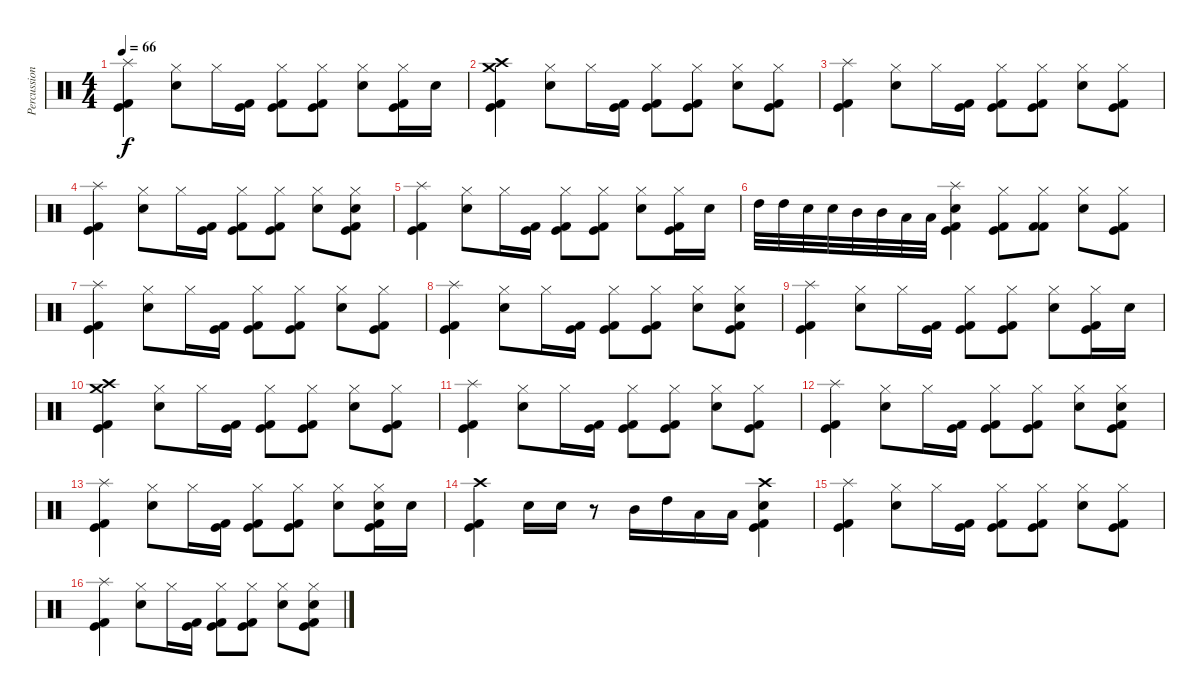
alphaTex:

\track ("Percussion" "Percussion") {instrument percussion}
\staff {score}
\articulation defaults
\ts (4 4)
\tempo 66
\clef neutral
\ks c
("Splash (hit)" "Kick (hit) 2" "Kick (hit)").4{dy f} ("Hi-Hat (closed)" "Electric Snare (hit)").8 "Hi-Hat (closed)".16 ("Kick (hit) 2" "Kick (hit)").16 ("Hi-Hat (closed)" "Kick (hit) 2" "Kick (hit)").8 ("Hi-Hat (closed)" "Kick (hit)" "Kick (hit) 2").8 ("Hi-Hat (closed)" "Electric Snare (hit)").8 ("Hi-Hat (closed)" "Kick (hit) 2" "Kick (hit)").16 "Electric Snare (hit)".16 |
("Crash medium (hit)" "Crash high (hit)" "Kick (hit) 2" "Kick (hit)").4 ("Hi-Hat (closed)" "Electric Snare (hit)").8 "Hi-Hat (closed)".16 ("Kick (hit) 2" "Kick (hit)").16 ("Hi-Hat (closed)" "Kick (hit) 2" "Kick (hit)").8 ("Hi-Hat (closed)" "Kick (hit)" "Kick (hit) 2").8 ("Hi-Hat (closed)" "Electric Snare (hit)").8 ("Hi-Hat (closed)" "Kick (hit) 2" "Kick (hit)").8 |
("Splash (hit)" "Kick (hit) 2" "Kick (hit)").4 ("Hi-Hat (closed)" "Electric Snare (hit)").8 "Hi-Hat (closed)".16 ("Kick (hit) 2" "Kick (hit)").16 ("Hi-Hat (closed)" "Kick (hit) 2" "Kick (hit)").8 ("Hi-Hat (closed)" "Kick (hit)" "Kick (hit) 2").8 ("Hi-Hat (closed)" "Electric Snare (hit)").8 ("Hi-Hat (closed)" "Kick (hit) 2" "Kick (hit)").8 |
("Splash (hit)" "Kick (hit) 2" "Kick (hit)").4 ("Hi-Hat (closed)" "Electric Snare (hit)").8 "Hi-Hat (closed)".16 ("Kick (hit) 2" "Kick (hit)").16 ("Hi-Hat (closed)" "Kick (hit) 2" "Kick (hit)").8 ("Hi-Hat (closed)" "Kick (hit)" "Kick (hit) 2").8 ("Hi-Hat (closed)" "Electric Snare (hit)").8 ("Hi-Hat (closed)" "Electric Snare (hit)" "Kick (hit) 2" "Kick (hit)").8 |
("Splash (hit)" "Kick (hit) 2" "Kick (hit)").4 ("Hi-Hat (closed)" "Electric Snare (hit)").8 "Hi-Hat (closed)".16 ("Kick (hit) 2" "Kick (hit)").16 ("Hi-Hat (closed)" "Kick (hit) 2" "Kick (hit)").8 ("Hi-Hat (closed)" "Kick (hit)" "Kick (hit) 2").8 ("Hi-Hat (closed)" "Electric Snare (hit)").8 ("Hi-Hat (closed)" "Kick (hit) 2" "Kick (hit)").16 "Electric Snare (hit)".16 |
"High Tom (hit)".32 "High Tom (hit)".32 "Electric Snare (hit)".32 "Electric Snare (hit)".32 "Mid Tom (hit)".32 "Mid Tom (hit)".32 "Low Floor Tom (hit)".32 "Low Floor Tom (hit)".32 ("Splash (hit)" "Electric Snare (hit)" "Kick (hit) 2" "Kick (hit)").4 ("Hi-Hat (closed)" "Kick (hit) 2" "Kick (hit)").8 ("Hi-Hat (closed)" "Kick (hit) 2" "Kick (hit) 2").8 ("Hi-Hat (closed)" "Electric Snare (hit)").8 ("Hi-Hat (closed)" "Kick (hit) 2" "Kick (hit)").8 |
("Splash (hit)" "Kick (hit) 2" "Kick (hit)").4 ("Hi-Hat (closed)" "Electric Snare (hit)").8 "Hi-Hat (closed)".16 ("Kick (hit) 2" "Kick (hit)").16 ("Hi-Hat (closed)" "Kick (hit) 2" "Kick (hit)").8 ("Hi-Hat (closed)" "Kick (hit)" "Kick (hit) 2").8 ("Hi-Hat (closed)" "Electric Snare (hit)").8 ("Hi-Hat (closed)" "Kick (hit) 2" "Kick (hit)").8 |
("Splash (hit)" "Kick (hit) 2" "Kick (hit)").4 ("Hi-Hat (closed)" "Electric Snare (hit)").8 "Hi-Hat (closed)".16 ("Kick (hit) 2" "Kick (hit)").16 ("Hi-Hat (closed)" "Kick (hit) 2" "Kick (hit)").8 ("Hi-Hat (closed)" "Kick (hit)" "Kick (hit) 2").8 ("Hi-Hat (closed)" "Electric Snare (hit)").8 ("Hi-Hat (closed)" "Electric Snare (hit)" "Kick (hit) 2" "Kick (hit)").8 |
("Splash (hit)" "Kick (hit) 2" "Kick (hit)").4 ("Hi-Hat (closed)" "Electric Snare (hit)").8 "Hi-Hat (closed)".16 ("Kick (hit) 2" "Kick (hit)").16 ("Hi-Hat (closed)" "Kick (hit) 2" "Kick (hit)").8 ("Hi-Hat (closed)" "Kick (hit)" "Kick (hit) 2").8 ("Hi-Hat (closed)" "Electric Snare (hit)").8 ("Hi-Hat (closed)" "Kick (hit) 2" "Kick (hit)").16 "Electric Snare (hit)".16 |
("Crash medium (hit)" "Crash high (hit)" "Kick (hit) 2" "Kick (hit)").4 ("Hi-Hat (closed)" "Electric Snare (hit)").8 "Hi-Hat (closed)".16 ("Kick (hit) 2" "Kick (hit)").16 ("Hi-Hat (closed)" "Kick (hit) 2" "Kick (hit)").8 ("Hi-Hat (closed)" "Kick (hit)" "Kick (hit) 2").8 ("Hi-Hat (closed)" "Electric Snare (hit)").8 ("Hi-Hat (closed)" "Kick (hit) 2" "Kick (hit)").8 |
("Splash (hit)" "Kick (hit) 2" "Kick (hit)").4 ("Hi-Hat (closed)" "Electric Snare (hit)").8 "Hi-Hat (closed)".16 ("Kick (hit) 2" "Kick (hit)").16 ("Hi-Hat (closed)" "Kick (hit) 2" "Kick (hit)").8 ("Hi-Hat (closed)" "Kick (hit)" "Kick (hit) 2").8 ("Hi-Hat (closed)" "Electric Snare (hit)").8 ("Hi-Hat (closed)" "Kick (hit) 2" "Kick (hit)").8 |
("Splash (hit)" "Kick (hit) 2" "Kick (hit)").4 ("Hi-Hat (closed)" "Electric Snare (hit)").8 "Hi-Hat (closed)".16 ("Kick (hit) 2" "Kick (hit)").16 ("Hi-Hat (closed)" "Kick (hit) 2" "Kick (hit)").8 ("Hi-Hat (closed)" "Kick (hit)" "Kick (hit) 2").8 ("Hi-Hat (closed)" "Electric Snare (hit)").8 ("Hi-Hat (closed)" "Electric Snare (hit)" "Kick (hit) 2" "Kick (hit)").8 |
("Splash (hit)" "Kick (hit) 2" "Kick (hit)").4 ("Hi-Hat (closed)" "Electric Snare (hit)").8 "Hi-Hat (closed)".16 ("Kick (hit) 2" "Kick (hit)").16 ("Hi-Hat (closed)" "Kick (hit) 2" "Kick (hit)").8 ("Hi-Hat (closed)" "Kick (hit)" "Kick (hit) 2").8 ("Hi-Hat (closed)" "Electric Snare (hit)").8 ("Hi-Hat (closed)" "Electric Snare (hit)" "Kick (hit) 2" "Kick (hit)").16 "Electric Snare (hit)".16 |
("Crash high (hit)" "Kick (hit) 2" "Kick (hit)").4 "Electric Snare (hit)".16 "Electric Snare (hit)".16 r.8 "Mid Tom (hit)".16 "High Tom (hit)".16 "Low Floor Tom (hit)".16 "Low Floor Tom (hit)".16 ("Crash high (hit)" "Kick (hit) 2" "Kick (hit)" "Electric Snare (hit)").4 |
("Splash (hit)" "Kick (hit) 2" "Kick (hit)").4 ("Hi-Hat (closed)" "Electric Snare (hit)").8 "Hi-Hat (closed)".16 ("Kick (hit) 2" "Kick (hit)").16 ("Hi-Hat (closed)" "Kick (hit) 2" "Kick (hit)").8 ("Hi-Hat (closed)" "Kick (hit)" "Kick (hit) 2").8 ("Hi-Hat (closed)" "Electric Snare (hit)").8 ("Hi-Hat (closed)" "Kick (hit) 2" "Kick (hit)").8 |
("Splash (hit)" "Kick (hit) 2" "Kick (hit)").4 ("Hi-Hat (closed)" "Electric Snare (hit)").8 "Hi-Hat (closed)".16 ("Kick (hit) 2" "Kick (hit)").16 ("Hi-Hat (closed)" "Kick (hit) 2" "Kick (hit)").8 ("Hi-Hat (closed)" "Kick (hit)" "Kick (hit) 2").8 ("Hi-Hat (closed)" "Electric Snare (hit)").8 ("Hi-Hat (closed)" "Electric Snare (hit)" "Kick (hit) 2" "Kick (hit)").8
